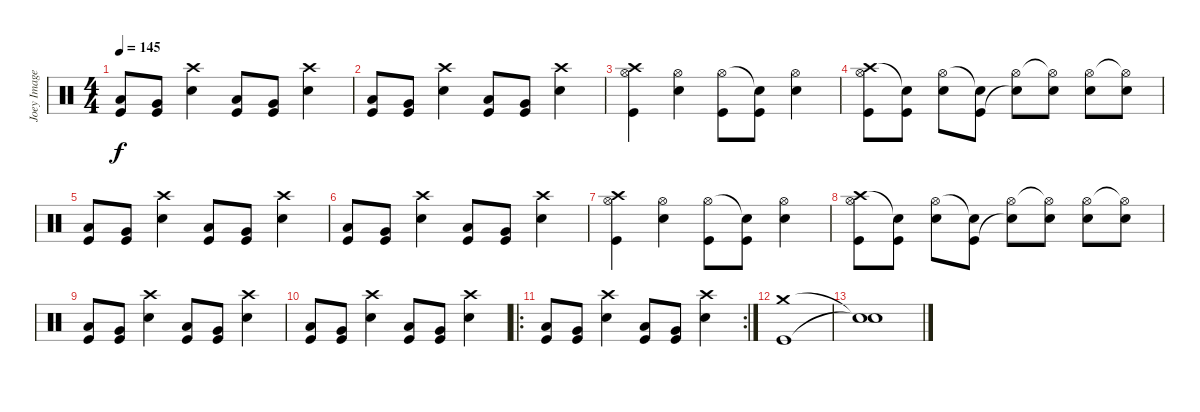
\track ("Joey Image" "Joey Image") {instrument percussion}
\staff {score}
\articulation defaults
\ts (4 4)
\tempo 145
\clef neutral
\ks c
("Low Tom (hit)" "Kick (hit)").8{dy f} ("Very Low Tom (hit)" "Kick (hit)").8 ("Crash high (hit)" "Snare (hit) 2").4 ("Low Tom (hit)" "Kick (hit)").8 ("Very Low Tom (hit)" "Kick (hit)").8 ("Crash high (hit)" "Snare (hit) 2").4 |
("Low Tom (hit)" "Kick (hit)").8 ("Very Low Tom (hit)" "Kick (hit)").8 ("Crash high (hit)" "Snare (hit) 2").4 ("Low Tom (hit)" "Kick (hit)").8 ("Very Low Tom (hit)" "Kick (hit)").8 ("Crash high (hit)" "Snare (hit) 2").4 |
("Crash high (hit)" "Hi-Hat (open)" "Kick (hit)").4 ("Hi-Hat (open)" "Snare (hit) 2").4 ("Hi-Hat (open)" "Kick (hit)").8 ("Snare (hit)"{t} "Kick (hit)").8 ("Hi-Hat (open)" "Snare (hit) 2").4 |
("Crash high (hit)" "Hi-Hat (open)" "Kick (hit)").8 ("Snare (hit)"{t} "Kick (hit)").8 ("Hi-Hat (open)" "Snare (hit) 2").8 ("Snare (hit)"{t} "Kick (hit)").8 ("Hi-Hat (open)" "Snare (hit)"{t}).8 ("Hi-Hat (open)"{t} "Snare (hit) 2").8 ("Hi-Hat (open)" "Snare (hit) 2").8 ("Hi-Hat (open)"{t} "Snare (hit) 2").8 |
("Low Tom (hit)" "Kick (hit)").8 ("Very Low Tom (hit)" "Kick (hit)").8 ("Crash high (hit)" "Snare (hit) 2").4 ("Low Tom (hit)" "Kick (hit)").8 ("Very Low Tom (hit)" "Kick (hit)").8 ("Crash high (hit)" "Snare (hit) 2").4 |
("Low Tom (hit)" "Kick (hit)").8 ("Very Low Tom (hit)" "Kick (hit)").8 ("Crash high (hit)" "Snare (hit) 2").4 ("Low Tom (hit)" "Kick (hit)").8 ("Very Low Tom (hit)" "Kick (hit)").8 ("Crash high (hit)" "Snare (hit) 2").4 |
("Crash high (hit)" "Hi-Hat (open)" "Kick (hit)").4 ("Hi-Hat (open)" "Snare (hit) 2").4 ("Hi-Hat (open)" "Kick (hit)").8 ("Snare (hit)"{t} "Kick (hit)").8 ("Hi-Hat (open)" "Snare (hit) 2").4 |
("Crash high (hit)" "Hi-Hat (open)" "Kick (hit)").8 ("Snare (hit)"{t} "Kick (hit)").8 ("Hi-Hat (open)" "Snare (hit) 2").8 ("Snare (hit)"{t} "Kick (hit)").8 ("Hi-Hat (open)" "Snare (hit)"{t}).8 ("Hi-Hat (open)"{t} "Snare (hit) 2").8 ("Hi-Hat (open)" "Snare (hit) 2").8 ("Hi-Hat (open)"{t} "Snare (hit) 2").8 |
("Low Tom (hit)" "Kick (hit)").8 ("Very Low Tom (hit)" "Kick (hit)").8 ("Crash high (hit)" "Snare (hit) 2").4 ("Low Tom (hit)" "Kick (hit)").8 ("Very Low Tom (hit)" "Kick (hit)").8 ("Crash high (hit)" "Snare (hit) 2").4 |
("Low Tom (hit)" "Kick (hit)").8 ("Very Low Tom (hit)" "Kick (hit)").8 ("Crash high (hit)" "Snare (hit) 2").4 ("Low Tom (hit)" "Kick (hit)").8 ("Very Low Tom (hit)" "Kick (hit)").8 ("Crash high (hit)" "Snare (hit) 2").4 |
\ro
\rc 2
("Low Tom (hit)" "Kick (hit)").8 ("Very Low Tom (hit)" "Kick (hit)").8 ("Crash high (hit)" "Snare (hit) 2").4 ("Low Tom (hit)" "Kick (hit)").8 ("Very Low Tom (hit)" "Kick (hit)").8 ("Crash high (hit)" "Snare (hit) 2").4 |
("Crash medium (hit)" "Kick (hit)").1 |
("Snare (hit)"{t} "Snare (hit)"{t}).1
